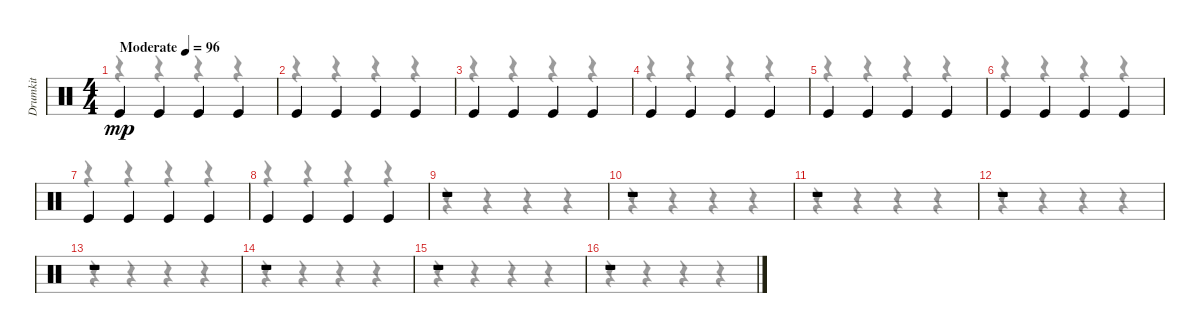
\track ("Drumkit" "Drumkit") {instrument percussion}
\staff {score}
\articulation defaults
\voice
\ts (4 4)
\tempo (96 "Moderate")
\clef neutral
\ks c "Kick (hit)".4{dy mp} "Kick (hit)".4 "Kick (hit)".4 "Kick (hit)".4
|
"Kick (hit)".4 "Kick (hit)".4 "Kick (hit)".4 "Kick (hit)".4 |
"Kick (hit)".4 "Kick (hit)".4 "Kick (hit)".4 "Kick (hit)".4 |
"Kick (hit)".4 "Kick (hit)".4 "Kick (hit)".4 "Kick (hit)".4 |
"Kick (hit)".4 "Kick (hit)".4 "Kick (hit)".4 "Kick (hit)".4 |
"Kick (hit)".4 "Kick (hit)".4 "Kick (hit)".4 "Kick (hit)".4 |
"Kick (hit)".4 "Kick (hit)".4 "Kick (hit)".4 "Kick (hit)".4 |
"Kick (hit)".4 "Kick (hit)".4 "Kick (hit)".4 "Kick (hit)".4 |
r.1 |
r.1 |
r.1 |
r.1 |
r.1 |
r.1 |
r.1 |
r.1
\voice
\clef neutral
\ottava regular
\simile none
\ks c
r.4{dy f} r.4 r.4 r.4 |
r.4 r.4 r.4 r.4 |
r.4 r.4 r.4 r.4 |
r.4 r.4 r.4 r.4 |
r.4 r.4 r.4 r.4 |
r.4 r.4 r.4 r.4 |
r.4 r.4 r.4 r.4 |
r.4 r.4 r.4 r.4 |
r.4 r.4 r.4 r.4 |
r.4 r.4 r.4 r.4 |
r.4 r.4 r.4 r.4 |
r.4 r.4 r.4 r.4 |
r.4 r.4 r.4 r.4 |
r.4 r.4 r.4 r.4 |
r.4 r.4 r.4 r.4 |
r.4 r.4 r.4 r.4
